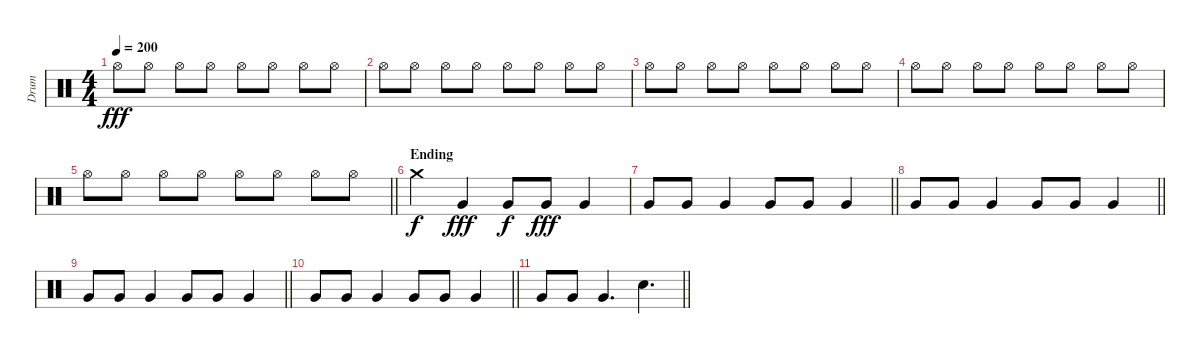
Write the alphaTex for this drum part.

\track ("Drum" "Drum") {instrument percussion}
\staff {score}
\articulation defaults
\ts (4 4)
\tempo 200
\clef neutral
\ks c "Hi-Hat (open)".8{dy fff} "Hi-Hat (open)".8 "Hi-Hat (open)".8 "Hi-Hat (open)".8 "Hi-Hat (open)".8 "Hi-Hat (open)".8 "Hi-Hat (open)".8 "Hi-Hat (open)".8
|
"Hi-Hat (open)".8 "Hi-Hat (open)".8 "Hi-Hat (open)".8 "Hi-Hat (open)".8 "Hi-Hat (open)".8 "Hi-Hat (open)".8 "Hi-Hat (open)".8 "Hi-Hat (open)".8 |
"Hi-Hat (open)".8 "Hi-Hat (open)".8 "Hi-Hat (open)".8 "Hi-Hat (open)".8 "Hi-Hat (open)".8 "Hi-Hat (open)".8 "Hi-Hat (open)".8 "Hi-Hat (open)".8 |
"Hi-Hat (open)".8 "Hi-Hat (open)".8 "Hi-Hat (open)".8 "Hi-Hat (open)".8 "Hi-Hat (open)".8 "Hi-Hat (open)".8 "Hi-Hat (open)".8 "Hi-Hat (open)".8 |
\barLineRight lightlight "Hi-Hat (open)".8 "Hi-Hat (open)".8 "Hi-Hat (open)".8 "Hi-Hat (open)".8 "Hi-Hat (open)".8 "Hi-Hat (open)".8 "Hi-Hat (open)".8 "Hi-Hat (open)".8
|
\section ("" "Ending")
"Crash medium (hit)".4{dy f} "Very Low Tom (hit)".4{dy fff} "Very Low Tom (hit)".8{dy f} "Very Low Tom (hit)".8{dy fff} "Very Low Tom (hit)".4 |
\barLineRight lightlight "Very Low Tom (hit)".8 "Very Low Tom (hit)".8 "Very Low Tom (hit)".4 "Very Low Tom (hit)".8 "Very Low Tom (hit)".8 "Very Low Tom (hit)".4
|
\barLineRight lightlight "Very Low Tom (hit)".8 "Very Low Tom (hit)".8 "Very Low Tom (hit)".4 "Very Low Tom (hit)".8 "Very Low Tom (hit)".8 "Very Low Tom (hit)".4
|
\barLineRight lightlight "Very Low Tom (hit)".8 "Very Low Tom (hit)".8 "Very Low Tom (hit)".4 "Very Low Tom (hit)".8 "Very Low Tom (hit)".8 "Very Low Tom (hit)".4
|
\barLineRight lightlight "Very Low Tom (hit)".8 "Very Low Tom (hit)".8 "Very Low Tom (hit)".4 "Very Low Tom (hit)".8 "Very Low Tom (hit)".8 "Very Low Tom (hit)".4
|
\barLineRight lightlight "Very Low Tom (hit)".8 "Very Low Tom (hit)".8 "Very Low Tom (hit)".4{d} "Snare (hit)".4{d}
